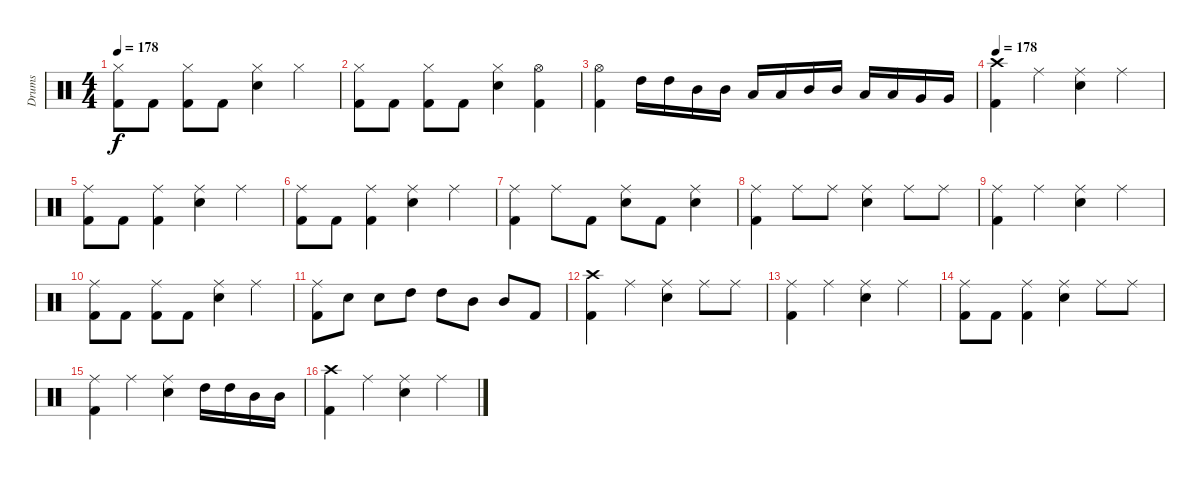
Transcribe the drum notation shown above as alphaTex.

\track ("Drums" "Drums") {instrument percussion}
\staff {score}
\articulation defaults
\ts (4 4)
\tempo 178
\clef neutral
\ks c
("Hi-Hat (closed)" "Kick (hit) 2").8{dy f} "Kick (hit) 2".8 ("Hi-Hat (closed)" "Kick (hit) 2").8 "Kick (hit) 2".8 ("Hi-Hat (closed)" "Electric Snare (hit)").4 "Hi-Hat (closed)".4 |
("Hi-Hat (closed)" "Kick (hit) 2").8 "Kick (hit) 2".8 ("Hi-Hat (closed)" "Kick (hit) 2").8 "Kick (hit) 2".8 ("Hi-Hat (closed)" "Electric Snare (hit)").4 ("Hi-Hat (open)" "Kick (hit) 2").4 |
("Hi-Hat (open)" "Kick (hit) 2").4 "High Tom (hit)".16 "High Tom (hit)".16 "Mid Tom (hit)".16 "Mid Tom (hit)".16 "Low Tom (hit)".16 "Low Tom (hit)".16 "Mid Tom (hit)".16 "Mid Tom (hit)".16 "Low Tom (hit)".16 "Low Tom (hit)".16 "Very Low Tom (hit)".16 "Very Low Tom (hit)".16 |
\tempo 178
("Crash high (hit)" "Kick (hit) 2").4 "Ride (middle)".4 ("Ride (middle)" "Electric Snare (hit)").4 "Ride (middle)".4 |
("Ride (middle)" "Kick (hit) 2").8 "Kick (hit) 2".8 ("Ride (middle)" "Kick (hit) 2").4 ("Ride (middle)" "Electric Snare (hit)").4 "Ride (middle)".4 |
("Ride (middle)" "Kick (hit) 2").8 "Kick (hit) 2".8 ("Ride (middle)" "Kick (hit) 2").4 ("Ride (middle)" "Electric Snare (hit)").4 "Ride (middle)".4 |
("Ride (middle)" "Kick (hit) 2").4 "Ride (middle)".8 "Kick (hit) 2".8 ("Ride (middle)" "Electric Snare (hit)").8 "Kick (hit) 2".8 ("Ride (middle)" "Electric Snare (hit)").4 |
("Ride (middle)" "Kick (hit) 2").4 "Ride (middle)".8 "Ride (middle)".8 ("Ride (middle)" "Electric Snare (hit)").4 "Ride (middle)".8 "Ride (middle)".8 |
("Ride (middle)" "Kick (hit) 2").4 "Ride (middle)".4 ("Ride (middle)" "Electric Snare (hit)").4 "Ride (middle)".4 |
("Ride (middle)" "Kick (hit) 2").8 "Kick (hit) 2".8 ("Ride (middle)" "Kick (hit) 2").8 "Kick (hit) 2".8 ("Ride (middle)" "Electric Snare (hit)").4 "Ride (middle)".4 |
("Ride (middle)" "Kick (hit) 2").8 "Electric Snare (hit)".8 "Electric Snare (hit)".8 "High Tom (hit)".8 "High Tom (hit)".8 "Mid Tom (hit)".8 "Mid Tom (hit)".8 "Kick (hit) 2".8 |
("Crash high (hit)" "Kick (hit) 2").4 "Ride (middle)".4 ("Ride (middle)" "Electric Snare (hit)").4 "Ride (middle)".8 "Ride (middle)".8 |
("Ride (middle)" "Kick (hit) 2").4 "Ride (middle)".4 ("Ride (middle)" "Electric Snare (hit)").4 "Ride (middle)".4 |
("Ride (middle)" "Kick (hit) 2").8 "Kick (hit) 2".8 ("Ride (middle)" "Kick (hit) 2").4 ("Ride (middle)" "Electric Snare (hit)").4 "Ride (middle)".8 "Ride (middle)".8 |
("Ride (middle)" "Kick (hit) 2").4 "Ride (middle)".4 ("Ride (middle)" "Electric Snare (hit)").4 "High Tom (hit)".16 "High Tom (hit)".16 "Mid Tom (hit)".16 "Mid Tom (hit)".16 |
("Crash high (hit)" "Kick (hit) 2").4 "Ride (middle)".4 ("Ride (middle)" "Electric Snare (hit)").4 "Ride (middle)".4
